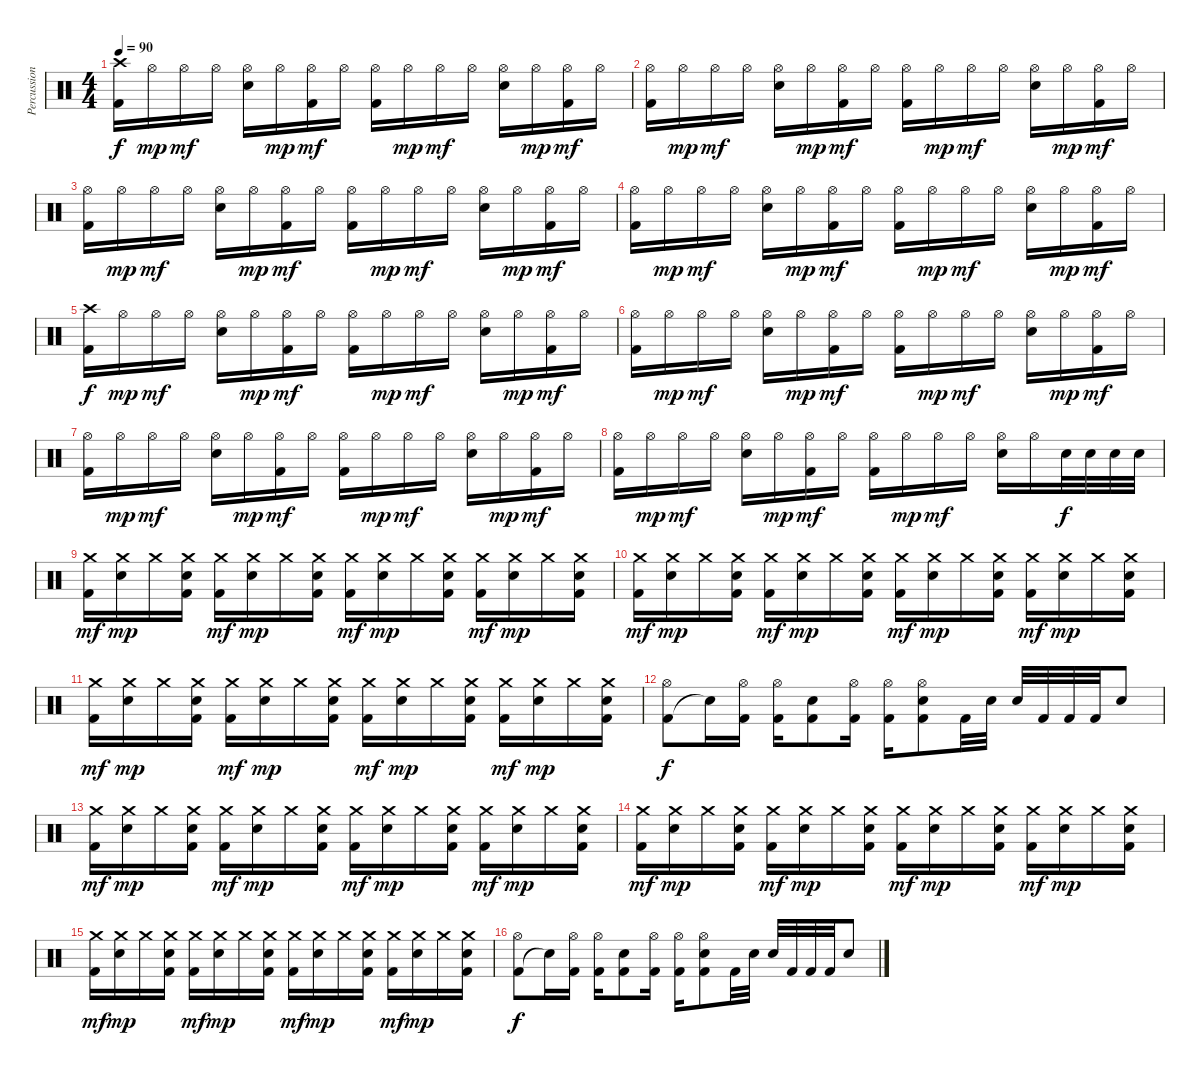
\track ("Percussioni" "Percussion") {instrument percussion}
\staff {score}
\articulation defaults
\ts (4 4)
\tempo 90
\clef neutral
\ks c
("Kick (hit) 2" "Crash high (hit)").16{dy f} "Hi-Hat (open)".16{dy mp} "Hi-Hat (open)".16{dy mf} "Hi-Hat (open)".16 ("Electric Snare (hit)" "Hi-Hat (open)").16 "Hi-Hat (open)".16{dy mp} ("Kick (hit) 2" "Hi-Hat (open)").16{dy mf} "Hi-Hat (open)".16 ("Kick (hit) 2" "Hi-Hat (open)").16 "Hi-Hat (open)".16{dy mp} "Hi-Hat (open)".16{dy mf} "Hi-Hat (open)".16 ("Electric Snare (hit)" "Hi-Hat (open)").16 "Hi-Hat (open)".16{dy mp} ("Kick (hit) 2" "Hi-Hat (open)").16{dy mf} "Hi-Hat (open)".16 |
("Kick (hit) 2" "Hi-Hat (open)").16 "Hi-Hat (open)".16{dy mp} "Hi-Hat (open)".16{dy mf} "Hi-Hat (open)".16 ("Electric Snare (hit)" "Hi-Hat (open)").16 "Hi-Hat (open)".16{dy mp} ("Kick (hit) 2" "Hi-Hat (open)").16{dy mf} "Hi-Hat (open)".16 ("Kick (hit) 2" "Hi-Hat (open)").16 "Hi-Hat (open)".16{dy mp} "Hi-Hat (open)".16{dy mf} "Hi-Hat (open)".16 ("Electric Snare (hit)" "Hi-Hat (open)").16 "Hi-Hat (open)".16{dy mp} ("Kick (hit) 2" "Hi-Hat (open)").16{dy mf} "Hi-Hat (open)".16 |
("Kick (hit) 2" "Hi-Hat (open)").16 "Hi-Hat (open)".16{dy mp} "Hi-Hat (open)".16{dy mf} "Hi-Hat (open)".16 ("Electric Snare (hit)" "Hi-Hat (open)").16 "Hi-Hat (open)".16{dy mp} ("Kick (hit) 2" "Hi-Hat (open)").16{dy mf} "Hi-Hat (open)".16 ("Kick (hit) 2" "Hi-Hat (open)").16 "Hi-Hat (open)".16{dy mp} "Hi-Hat (open)".16{dy mf} "Hi-Hat (open)".16 ("Electric Snare (hit)" "Hi-Hat (open)").16 "Hi-Hat (open)".16{dy mp} ("Kick (hit) 2" "Hi-Hat (open)").16{dy mf} "Hi-Hat (open)".16 |
("Kick (hit) 2" "Hi-Hat (open)").16 "Hi-Hat (open)".16{dy mp} "Hi-Hat (open)".16{dy mf} "Hi-Hat (open)".16 ("Electric Snare (hit)" "Hi-Hat (open)").16 "Hi-Hat (open)".16{dy mp} ("Kick (hit) 2" "Hi-Hat (open)").16{dy mf} "Hi-Hat (open)".16 ("Kick (hit) 2" "Hi-Hat (open)").16 "Hi-Hat (open)".16{dy mp} "Hi-Hat (open)".16{dy mf} "Hi-Hat (open)".16 ("Electric Snare (hit)" "Hi-Hat (open)").16 "Hi-Hat (open)".16{dy mp} ("Kick (hit) 2" "Hi-Hat (open)").16{dy mf} "Hi-Hat (open)".16 |
("Kick (hit) 2" "Crash high (hit)").16{dy f} "Hi-Hat (open)".16{dy mp} "Hi-Hat (open)".16{dy mf} "Hi-Hat (open)".16 ("Electric Snare (hit)" "Hi-Hat (open)").16 "Hi-Hat (open)".16{dy mp} ("Kick (hit) 2" "Hi-Hat (open)").16{dy mf} "Hi-Hat (open)".16 ("Kick (hit) 2" "Hi-Hat (open)").16 "Hi-Hat (open)".16{dy mp} "Hi-Hat (open)".16{dy mf} "Hi-Hat (open)".16 ("Electric Snare (hit)" "Hi-Hat (open)").16 "Hi-Hat (open)".16{dy mp} ("Kick (hit) 2" "Hi-Hat (open)").16{dy mf} "Hi-Hat (open)".16 |
("Kick (hit) 2" "Hi-Hat (open)").16 "Hi-Hat (open)".16{dy mp} "Hi-Hat (open)".16{dy mf} "Hi-Hat (open)".16 ("Electric Snare (hit)" "Hi-Hat (open)").16 "Hi-Hat (open)".16{dy mp} ("Kick (hit) 2" "Hi-Hat (open)").16{dy mf} "Hi-Hat (open)".16 ("Kick (hit) 2" "Hi-Hat (open)").16 "Hi-Hat (open)".16{dy mp} "Hi-Hat (open)".16{dy mf} "Hi-Hat (open)".16 ("Electric Snare (hit)" "Hi-Hat (open)").16 "Hi-Hat (open)".16{dy mp} ("Kick (hit) 2" "Hi-Hat (open)").16{dy mf} "Hi-Hat (open)".16 |
("Kick (hit) 2" "Hi-Hat (open)").16 "Hi-Hat (open)".16{dy mp} "Hi-Hat (open)".16{dy mf} "Hi-Hat (open)".16 ("Electric Snare (hit)" "Hi-Hat (open)").16 "Hi-Hat (open)".16{dy mp} ("Kick (hit) 2" "Hi-Hat (open)").16{dy mf} "Hi-Hat (open)".16 ("Kick (hit) 2" "Hi-Hat (open)").16 "Hi-Hat (open)".16{dy mp} "Hi-Hat (open)".16{dy mf} "Hi-Hat (open)".16 ("Electric Snare (hit)" "Hi-Hat (open)").16 "Hi-Hat (open)".16{dy mp} ("Kick (hit) 2" "Hi-Hat (open)").16{dy mf} "Hi-Hat (open)".16 |
("Kick (hit) 2" "Hi-Hat (open)").16 "Hi-Hat (open)".16{dy mp} "Hi-Hat (open)".16{dy mf} "Hi-Hat (open)".16 ("Electric Snare (hit)" "Hi-Hat (open)").16 "Hi-Hat (open)".16{dy mp} ("Kick (hit) 2" "Hi-Hat (open)").16{dy mf} "Hi-Hat (open)".16 ("Kick (hit) 2" "Hi-Hat (open)").16 "Hi-Hat (open)".16{dy mp} "Hi-Hat (open)".16{dy mf} "Hi-Hat (open)".16 ("Electric Snare (hit)" "Hi-Hat (open)").16 "Hi-Hat (open)".16 "Electric Snare (hit)".32{dy f} "Electric Snare (hit)".32 "Electric Snare (hit)".32 "Electric Snare (hit)".32 |
("Kick (hit) 2" "Crash medium (hit)").16{dy mf} ("Electric Snare (hit)" "Crash medium (hit)").16{dy mp} "Crash medium (hit)".16 ("Kick (hit) 2" "Electric Snare (hit)" "Crash medium (hit)").16 ("Kick (hit) 2" "Crash medium (hit)").16{dy mf} ("Electric Snare (hit)" "Crash medium (hit)").16{dy mp} "Crash medium (hit)".16 ("Kick (hit) 2" "Electric Snare (hit)" "Crash medium (hit)").16 ("Kick (hit) 2" "Crash medium (hit)").16{dy mf} ("Electric Snare (hit)" "Crash medium (hit)").16{dy mp} "Crash medium (hit)".16 ("Kick (hit) 2" "Electric Snare (hit)" "Crash medium (hit)").16 ("Kick (hit) 2" "Crash medium (hit)").16{dy mf} ("Electric Snare (hit)" "Crash medium (hit)").16{dy mp} "Crash medium (hit)".16 ("Kick (hit) 2" "Electric Snare (hit)" "Crash medium (hit)").16 |
("Kick (hit) 2" "Crash medium (hit)").16{dy mf} ("Electric Snare (hit)" "Crash medium (hit)").16{dy mp} "Crash medium (hit)".16 ("Kick (hit) 2" "Electric Snare (hit)" "Crash medium (hit)").16 ("Kick (hit) 2" "Crash medium (hit)").16{dy mf} ("Electric Snare (hit)" "Crash medium (hit)").16{dy mp} "Crash medium (hit)".16 ("Kick (hit) 2" "Electric Snare (hit)" "Crash medium (hit)").16 ("Kick (hit) 2" "Crash medium (hit)").16{dy mf} ("Electric Snare (hit)" "Crash medium (hit)").16{dy mp} "Crash medium (hit)".16 ("Kick (hit) 2" "Electric Snare (hit)" "Crash medium (hit)").16 ("Kick (hit) 2" "Crash medium (hit)").16{dy mf} ("Electric Snare (hit)" "Crash medium (hit)").16{dy mp} "Crash medium (hit)".16 ("Kick (hit) 2" "Electric Snare (hit)" "Crash medium (hit)").16 |
("Kick (hit) 2" "Crash medium (hit)").16{dy mf} ("Electric Snare (hit)" "Crash medium (hit)").16{dy mp} "Crash medium (hit)".16 ("Kick (hit) 2" "Electric Snare (hit)" "Crash medium (hit)").16 ("Kick (hit) 2" "Crash medium (hit)").16{dy mf} ("Electric Snare (hit)" "Crash medium (hit)").16{dy mp} "Crash medium (hit)".16 ("Kick (hit) 2" "Electric Snare (hit)" "Crash medium (hit)").16 ("Kick (hit) 2" "Crash medium (hit)").16{dy mf} ("Electric Snare (hit)" "Crash medium (hit)").16{dy mp} "Crash medium (hit)".16 ("Kick (hit) 2" "Electric Snare (hit)" "Crash medium (hit)").16 ("Kick (hit) 2" "Crash medium (hit)").16{dy mf} ("Electric Snare (hit)" "Crash medium (hit)").16{dy mp} "Crash medium (hit)".16 ("Kick (hit) 2" "Electric Snare (hit)" "Crash medium (hit)").16 |
("Kick (hit) 2" "Hi-Hat (open)").8{dy f} "Snare (hit)"{t}.16 ("Kick (hit) 2" "Hi-Hat (open)").16 ("Kick (hit) 2" "Hi-Hat (open)").16 ("Kick (hit) 2" "Electric Snare (hit)").8 ("Kick (hit) 2" "Hi-Hat (open)").16 ("Kick (hit) 2" "Hi-Hat (open)").16 ("Kick (hit) 2" "Electric Snare (hit)" "Hi-Hat (open)").8 "Kick (hit) 2".32 "Electric Snare (hit)".32 "Electric Snare (hit)".32 "Kick (hit) 2".32 "Kick (hit) 2".32 "Kick (hit) 2".32 "Electric Snare (hit)".8 |
("Kick (hit) 2" "Crash medium (hit)").16{dy mf} ("Electric Snare (hit)" "Crash medium (hit)").16{dy mp} "Crash medium (hit)".16 ("Kick (hit) 2" "Electric Snare (hit)" "Crash medium (hit)").16 ("Kick (hit) 2" "Crash medium (hit)").16{dy mf} ("Electric Snare (hit)" "Crash medium (hit)").16{dy mp} "Crash medium (hit)".16 ("Kick (hit) 2" "Electric Snare (hit)" "Crash medium (hit)").16 ("Kick (hit) 2" "Crash medium (hit)").16{dy mf} ("Electric Snare (hit)" "Crash medium (hit)").16{dy mp} "Crash medium (hit)".16 ("Kick (hit) 2" "Electric Snare (hit)" "Crash medium (hit)").16 ("Kick (hit) 2" "Crash medium (hit)").16{dy mf} ("Electric Snare (hit)" "Crash medium (hit)").16{dy mp} "Crash medium (hit)".16 ("Kick (hit) 2" "Electric Snare (hit)" "Crash medium (hit)").16 |
("Kick (hit) 2" "Crash medium (hit)").16{dy mf} ("Electric Snare (hit)" "Crash medium (hit)").16{dy mp} "Crash medium (hit)".16 ("Kick (hit) 2" "Electric Snare (hit)" "Crash medium (hit)").16 ("Kick (hit) 2" "Crash medium (hit)").16{dy mf} ("Electric Snare (hit)" "Crash medium (hit)").16{dy mp} "Crash medium (hit)".16 ("Kick (hit) 2" "Electric Snare (hit)" "Crash medium (hit)").16 ("Kick (hit) 2" "Crash medium (hit)").16{dy mf} ("Electric Snare (hit)" "Crash medium (hit)").16{dy mp} "Crash medium (hit)".16 ("Kick (hit) 2" "Electric Snare (hit)" "Crash medium (hit)").16 ("Kick (hit) 2" "Crash medium (hit)").16{dy mf} ("Electric Snare (hit)" "Crash medium (hit)").16{dy mp} "Crash medium (hit)".16 ("Kick (hit) 2" "Electric Snare (hit)" "Crash medium (hit)").16 |
("Kick (hit) 2" "Crash medium (hit)").16{dy mf} ("Electric Snare (hit)" "Crash medium (hit)").16{dy mp} "Crash medium (hit)".16 ("Kick (hit) 2" "Electric Snare (hit)" "Crash medium (hit)").16 ("Kick (hit) 2" "Crash medium (hit)").16{dy mf} ("Electric Snare (hit)" "Crash medium (hit)").16{dy mp} "Crash medium (hit)".16 ("Kick (hit) 2" "Electric Snare (hit)" "Crash medium (hit)").16 ("Kick (hit) 2" "Crash medium (hit)").16{dy mf} ("Electric Snare (hit)" "Crash medium (hit)").16{dy mp} "Crash medium (hit)".16 ("Kick (hit) 2" "Electric Snare (hit)" "Crash medium (hit)").16 ("Kick (hit) 2" "Crash medium (hit)").16{dy mf} ("Electric Snare (hit)" "Crash medium (hit)").16{dy mp} "Crash medium (hit)".16 ("Kick (hit) 2" "Electric Snare (hit)" "Crash medium (hit)").16 |
("Kick (hit) 2" "Hi-Hat (open)").8{dy f} "Snare (hit)"{t}.16 ("Kick (hit) 2" "Hi-Hat (open)").16 ("Kick (hit) 2" "Hi-Hat (open)").16 ("Kick (hit) 2" "Electric Snare (hit)").8 ("Kick (hit) 2" "Hi-Hat (open)").16 ("Kick (hit) 2" "Hi-Hat (open)").16 ("Kick (hit) 2" "Electric Snare (hit)" "Hi-Hat (open)").8 "Kick (hit) 2".32 "Electric Snare (hit)".32 "Electric Snare (hit)".32 "Kick (hit) 2".32 "Kick (hit) 2".32 "Kick (hit) 2".32 "Electric Snare (hit)".8
